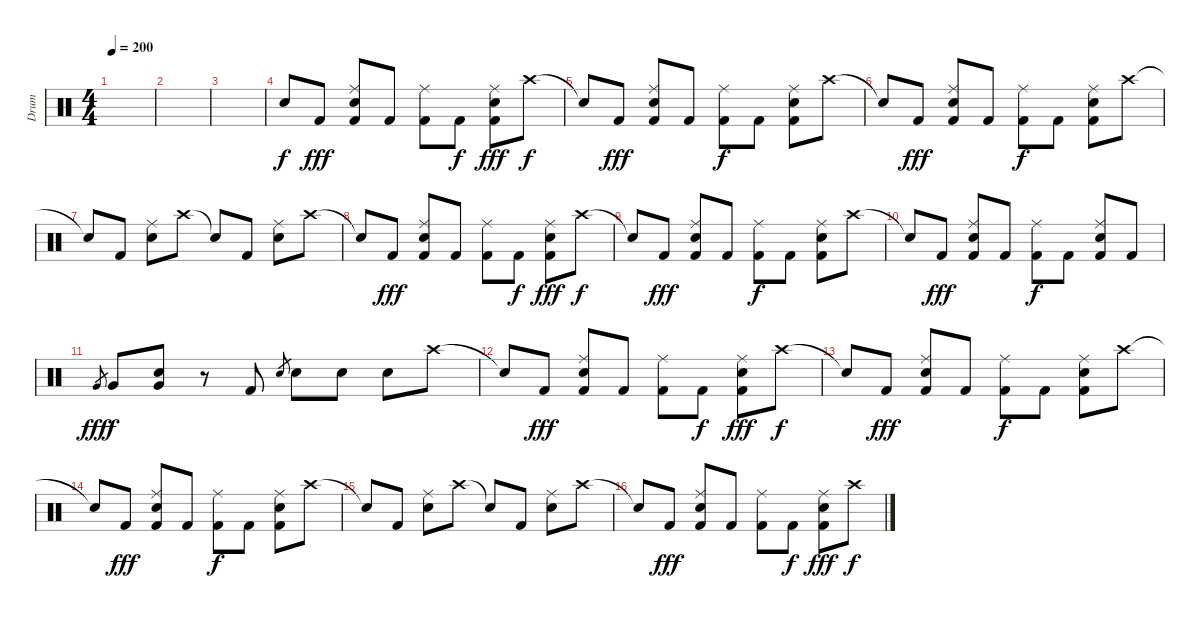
\track ("Drum" "Drum") {instrument percussion}
\staff {score}
\articulation defaults
\ts (4 4)
\tempo 200
\clef neutral
\ks c
|
|
|
"Snare (hit)".8 "Kick (hit) 2".8{dy fff} ("Ride (middle)" "Electric Snare (hit)" "Kick (hit) 2").8 "Kick (hit) 2".8 ("Ride (middle)" "Kick (hit) 2").8 "Kick (hit) 2".8{dy f} ("Ride (middle)" "Electric Snare (hit)" "Kick (hit) 2").8{dy fff} "Crash high (hit)".8{dy f} |
"Snare (hit)"{t}.8 "Kick (hit) 2".8{dy fff} ("Ride (middle)" "Electric Snare (hit)" "Kick (hit) 2").8 "Kick (hit) 2".8 ("Ride (middle)" "Kick (hit) 2").8{dy f} "Kick (hit) 2".8 ("Ride (middle)" "Electric Snare (hit)" "Kick (hit) 2").8 "Crash high (hit)".8 |
"Snare (hit)"{t}.8 "Kick (hit) 2".8{dy fff} ("Ride (middle)" "Electric Snare (hit)" "Kick (hit) 2").8 "Kick (hit) 2".8 ("Ride (middle)" "Kick (hit) 2").8{dy f} "Kick (hit) 2".8 ("Ride (middle)" "Electric Snare (hit)" "Kick (hit) 2").8 "Crash high (hit)".8 |
"Snare (hit)"{t}.8 "Kick (hit) 2".8 ("Ride (middle)" "Electric Snare (hit)").8 "Crash high (hit)".8 "Snare (hit)"{t}.8 "Kick (hit) 2".8 ("Ride (middle)" "Electric Snare (hit)").8 "Crash high (hit)".8 |
"Snare (hit)"{t}.8 "Kick (hit) 2".8{dy fff} ("Ride (middle)" "Electric Snare (hit)" "Kick (hit) 2").8 "Kick (hit) 2".8 ("Ride (middle)" "Kick (hit) 2").8 "Kick (hit) 2".8{dy f} ("Ride (middle)" "Electric Snare (hit)" "Kick (hit) 2").8{dy fff} "Crash high (hit)".8{dy f} |
"Snare (hit)"{t}.8 "Kick (hit) 2".8{dy fff} ("Ride (middle)" "Electric Snare (hit)" "Kick (hit) 2").8 "Kick (hit) 2".8 ("Ride (middle)" "Kick (hit) 2").8{dy f} "Kick (hit) 2".8 ("Ride (middle)" "Electric Snare (hit)" "Kick (hit) 2").8 "Crash high (hit)".8 |
"Snare (hit)"{t}.8 "Kick (hit) 2".8{dy fff} ("Ride (middle)" "Electric Snare (hit)" "Kick (hit) 2").8 "Kick (hit) 2".8 ("Ride (middle)" "Kick (hit) 2").8{dy f} "Kick (hit) 2".8 ("Ride (middle)" "Electric Snare (hit)" "Kick (hit) 2").8 "Kick (hit) 2".8 |
"Very Low Tom (hit)".8{gr dy fff} "Very Low Tom (hit)".8{dy f} ("Very Low Tom (hit)" "Electric Snare (hit)").8 r.8 "Kick (hit) 2".8 "Electric Snare (hit)".8{gr} "Electric Snare (hit)".8 "Electric Snare (hit)".8 "Electric Snare (hit)".8 "Crash high (hit)".8 |
"Snare (hit)"{t}.8 "Kick (hit) 2".8{dy fff} ("Ride (middle)" "Electric Snare (hit)" "Kick (hit) 2").8 "Kick (hit) 2".8 ("Ride (middle)" "Kick (hit) 2").8 "Kick (hit) 2".8{dy f} ("Ride (middle)" "Electric Snare (hit)" "Kick (hit) 2").8{dy fff} "Crash high (hit)".8{dy f} |
"Snare (hit)"{t}.8 "Kick (hit) 2".8{dy fff} ("Ride (middle)" "Electric Snare (hit)" "Kick (hit) 2").8 "Kick (hit) 2".8 ("Ride (middle)" "Kick (hit) 2").8{dy f} "Kick (hit) 2".8 ("Ride (middle)" "Electric Snare (hit)" "Kick (hit) 2").8 "Crash high (hit)".8 |
"Snare (hit)"{t}.8 "Kick (hit) 2".8{dy fff} ("Ride (middle)" "Electric Snare (hit)" "Kick (hit) 2").8 "Kick (hit) 2".8 ("Ride (middle)" "Kick (hit) 2").8{dy f} "Kick (hit) 2".8 ("Ride (middle)" "Electric Snare (hit)" "Kick (hit) 2").8 "Crash high (hit)".8 |
"Snare (hit)"{t}.8 "Kick (hit) 2".8 ("Ride (middle)" "Electric Snare (hit)").8 "Crash high (hit)".8 "Snare (hit)"{t}.8 "Kick (hit) 2".8 ("Ride (middle)" "Electric Snare (hit)").8 "Crash high (hit)".8 |
"Snare (hit)"{t}.8 "Kick (hit) 2".8{dy fff} ("Ride (middle)" "Electric Snare (hit)" "Kick (hit) 2").8 "Kick (hit) 2".8 ("Ride (middle)" "Kick (hit) 2").8 "Kick (hit) 2".8{dy f} ("Ride (middle)" "Electric Snare (hit)" "Kick (hit) 2").8{dy fff} "Crash high (hit)".8{dy f}
